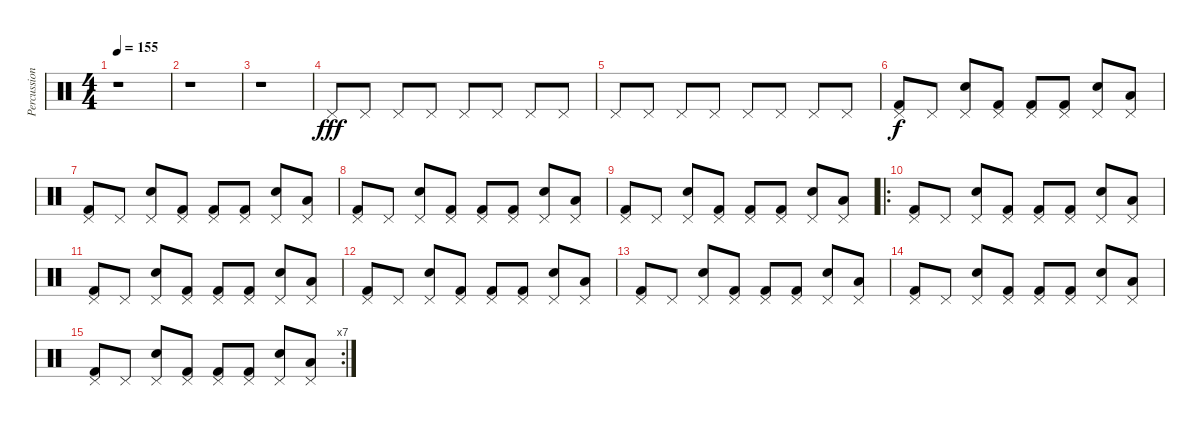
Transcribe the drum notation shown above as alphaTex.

\track ("Percussions" "Percussion") {instrument percussion}
\staff {score}
\articulation defaults
\ts (4 4)
\tempo 155
\clef neutral
\ks c
r.1{dy fff} |
r.1 |
r.1 |
"Pedal Hi-Hat (hit)".8 "Pedal Hi-Hat (hit)".8 "Pedal Hi-Hat (hit)".8 "Pedal Hi-Hat (hit)".8 "Pedal Hi-Hat (hit)".8 "Pedal Hi-Hat (hit)".8 "Pedal Hi-Hat (hit)".8 "Pedal Hi-Hat (hit)".8 |
"Pedal Hi-Hat (hit)".8 "Pedal Hi-Hat (hit)".8 "Pedal Hi-Hat (hit)".8 "Pedal Hi-Hat (hit)".8 "Pedal Hi-Hat (hit)".8 "Pedal Hi-Hat (hit)".8 "Pedal Hi-Hat (hit)".8 "Pedal Hi-Hat (hit)".8 |
("Pedal Hi-Hat (hit)" "Kick (hit) 2").8{dy f} "Pedal Hi-Hat (hit)".8 ("Pedal Hi-Hat (hit)" "Electric Snare (hit)").8 ("Pedal Hi-Hat (hit)" "Kick (hit) 2").8 ("Pedal Hi-Hat (hit)" "Kick (hit) 2").8 ("Pedal Hi-Hat (hit)" "Kick (hit) 2").8 ("Pedal Hi-Hat (hit)" "Electric Snare (hit)").8 ("Pedal Hi-Hat (hit)" "Low Floor Tom (hit)").8 |
("Pedal Hi-Hat (hit)" "Kick (hit) 2").8 "Pedal Hi-Hat (hit)".8 ("Pedal Hi-Hat (hit)" "Electric Snare (hit)").8 ("Pedal Hi-Hat (hit)" "Kick (hit) 2").8 ("Pedal Hi-Hat (hit)" "Kick (hit) 2").8 ("Pedal Hi-Hat (hit)" "Kick (hit) 2").8 ("Pedal Hi-Hat (hit)" "Electric Snare (hit)").8 ("Pedal Hi-Hat (hit)" "Low Floor Tom (hit)").8 |
("Pedal Hi-Hat (hit)" "Kick (hit) 2").8 "Pedal Hi-Hat (hit)".8 ("Pedal Hi-Hat (hit)" "Electric Snare (hit)").8 ("Pedal Hi-Hat (hit)" "Kick (hit) 2").8 ("Pedal Hi-Hat (hit)" "Kick (hit) 2").8 ("Pedal Hi-Hat (hit)" "Kick (hit) 2").8 ("Pedal Hi-Hat (hit)" "Electric Snare (hit)").8 ("Pedal Hi-Hat (hit)" "Low Floor Tom (hit)").8 |
("Pedal Hi-Hat (hit)" "Kick (hit) 2").8 "Pedal Hi-Hat (hit)".8 ("Pedal Hi-Hat (hit)" "Electric Snare (hit)").8 ("Pedal Hi-Hat (hit)" "Kick (hit) 2").8 ("Pedal Hi-Hat (hit)" "Kick (hit) 2").8 ("Pedal Hi-Hat (hit)" "Kick (hit) 2").8 ("Pedal Hi-Hat (hit)" "Electric Snare (hit)").8 ("Pedal Hi-Hat (hit)" "Low Floor Tom (hit)").8 |
\ro
("Pedal Hi-Hat (hit)" "Kick (hit) 2").8 "Pedal Hi-Hat (hit)".8 ("Pedal Hi-Hat (hit)" "Electric Snare (hit)").8 ("Pedal Hi-Hat (hit)" "Kick (hit) 2").8 ("Pedal Hi-Hat (hit)" "Kick (hit) 2").8 ("Pedal Hi-Hat (hit)" "Kick (hit) 2").8 ("Pedal Hi-Hat (hit)" "Electric Snare (hit)").8 ("Pedal Hi-Hat (hit)" "Low Floor Tom (hit)").8 |
("Pedal Hi-Hat (hit)" "Kick (hit) 2").8 "Pedal Hi-Hat (hit)".8 ("Pedal Hi-Hat (hit)" "Electric Snare (hit)").8 ("Pedal Hi-Hat (hit)" "Kick (hit) 2").8 ("Pedal Hi-Hat (hit)" "Kick (hit) 2").8 ("Pedal Hi-Hat (hit)" "Kick (hit) 2").8 ("Pedal Hi-Hat (hit)" "Electric Snare (hit)").8 ("Pedal Hi-Hat (hit)" "Low Floor Tom (hit)").8 |
("Pedal Hi-Hat (hit)" "Kick (hit) 2").8 "Pedal Hi-Hat (hit)".8 ("Pedal Hi-Hat (hit)" "Electric Snare (hit)").8 ("Pedal Hi-Hat (hit)" "Kick (hit) 2").8 ("Pedal Hi-Hat (hit)" "Kick (hit) 2").8 ("Pedal Hi-Hat (hit)" "Kick (hit) 2").8 ("Pedal Hi-Hat (hit)" "Electric Snare (hit)").8 ("Pedal Hi-Hat (hit)" "Low Floor Tom (hit)").8 |
("Pedal Hi-Hat (hit)" "Kick (hit) 2").8 "Pedal Hi-Hat (hit)".8 ("Pedal Hi-Hat (hit)" "Electric Snare (hit)").8 ("Pedal Hi-Hat (hit)" "Kick (hit) 2").8 ("Pedal Hi-Hat (hit)" "Kick (hit) 2").8 ("Pedal Hi-Hat (hit)" "Kick (hit) 2").8 ("Pedal Hi-Hat (hit)" "Electric Snare (hit)").8 ("Pedal Hi-Hat (hit)" "Low Floor Tom (hit)").8 |
("Pedal Hi-Hat (hit)" "Kick (hit) 2").8 "Pedal Hi-Hat (hit)".8 ("Pedal Hi-Hat (hit)" "Electric Snare (hit)").8 ("Pedal Hi-Hat (hit)" "Kick (hit) 2").8 ("Pedal Hi-Hat (hit)" "Kick (hit) 2").8 ("Pedal Hi-Hat (hit)" "Kick (hit) 2").8 ("Pedal Hi-Hat (hit)" "Electric Snare (hit)").8 ("Pedal Hi-Hat (hit)" "Low Floor Tom (hit)").8 |
\rc 7
("Pedal Hi-Hat (hit)" "Kick (hit) 2").8 "Pedal Hi-Hat (hit)".8 ("Pedal Hi-Hat (hit)" "Electric Snare (hit)").8 ("Pedal Hi-Hat (hit)" "Kick (hit) 2").8 ("Pedal Hi-Hat (hit)" "Kick (hit) 2").8 ("Pedal Hi-Hat (hit)" "Kick (hit) 2").8 ("Pedal Hi-Hat (hit)" "Electric Snare (hit)").8 ("Pedal Hi-Hat (hit)" "Low Floor Tom (hit)").8
